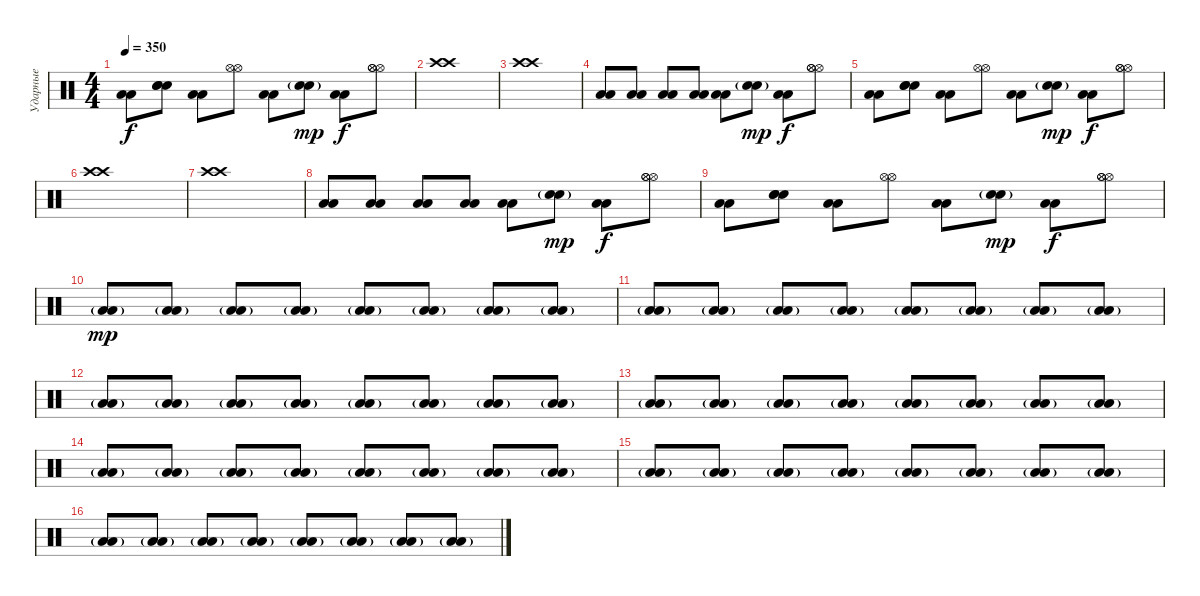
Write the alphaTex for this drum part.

\track ("Ударные" "Ударные") {instrument percussion}
\staff {score}
\articulation defaults
\ts (4 4)
\tempo 350
\clef neutral
\ks c
("Low Floor Tom (hit)" "Low Floor Tom (hit)").8{dy f} ("Electric Snare (hit)" "Electric Snare (hit)" "Electric Snare (hit)").8 ("Low Floor Tom (hit)" "Low Floor Tom (hit)").8 ("Hi-Hat (open)" "Hi-Hat (open)").8 ("Low Floor Tom (hit)" "Low Floor Tom (hit)").8 ("Electric Snare (hit)"{g} "Electric Snare (hit)"{g}).8{dy mp} ("Low Floor Tom (hit)" "Low Floor Tom (hit)").8{dy f} ("Hi-Hat (open)" "Hi-Hat (open)" "Hi-Hat (open)").8 |
("Crash high (hit)" "Crash high (hit)").1 |
("Crash high (hit)" "Crash high (hit)").1 |
("Low Floor Tom (hit)" "Low Floor Tom (hit)").8 ("Low Floor Tom (hit)" "Low Floor Tom (hit)").8 ("Low Floor Tom (hit)" "Low Floor Tom (hit)").8 ("Low Floor Tom (hit)" "Low Floor Tom (hit)").8 ("Low Floor Tom (hit)" "Low Floor Tom (hit)").8 ("Electric Snare (hit)"{g} "Electric Snare (hit)"{g}).8{dy mp} ("Low Floor Tom (hit)" "Low Floor Tom (hit)").8{dy f} ("Hi-Hat (open)" "Hi-Hat (open)" "Hi-Hat (open)").8 |
("Low Floor Tom (hit)" "Low Floor Tom (hit)").8 ("Electric Snare (hit)" "Electric Snare (hit)" "Electric Snare (hit)").8 ("Low Floor Tom (hit)" "Low Floor Tom (hit)").8 ("Hi-Hat (open)" "Hi-Hat (open)").8 ("Low Floor Tom (hit)" "Low Floor Tom (hit)").8 ("Electric Snare (hit)"{g} "Electric Snare (hit)"{g}).8{dy mp} ("Low Floor Tom (hit)" "Low Floor Tom (hit)").8{dy f} ("Hi-Hat (open)" "Hi-Hat (open)" "Hi-Hat (open)").8 |
("Crash high (hit)" "Crash high (hit)").1 |
("Crash high (hit)" "Crash high (hit)").1 |
("Low Floor Tom (hit)" "Low Floor Tom (hit)").8 ("Low Floor Tom (hit)" "Low Floor Tom (hit)").8 ("Low Floor Tom (hit)" "Low Floor Tom (hit)").8 ("Low Floor Tom (hit)" "Low Floor Tom (hit)").8 ("Low Floor Tom (hit)" "Low Floor Tom (hit)").8 ("Electric Snare (hit)"{g} "Electric Snare (hit)"{g}).8{dy mp} ("Low Floor Tom (hit)" "Low Floor Tom (hit)").8{dy f} ("Hi-Hat (open)" "Hi-Hat (open)" "Hi-Hat (open)").8 |
("Low Floor Tom (hit)" "Low Floor Tom (hit)").8 ("Electric Snare (hit)" "Electric Snare (hit)" "Electric Snare (hit)").8 ("Low Floor Tom (hit)" "Low Floor Tom (hit)").8 ("Hi-Hat (open)" "Hi-Hat (open)").8 ("Low Floor Tom (hit)" "Low Floor Tom (hit)").8 ("Electric Snare (hit)"{g} "Electric Snare (hit)"{g}).8{dy mp} ("Low Floor Tom (hit)" "Low Floor Tom (hit)").8{dy f} ("Hi-Hat (open)" "Hi-Hat (open)" "Hi-Hat (open)").8 |
("Low Floor Tom (hit)"{g} "Low Floor Tom (hit)"{g}).8{dy mp} ("Low Floor Tom (hit)"{g} "Low Floor Tom (hit)"{g}).8 ("Low Floor Tom (hit)"{g} "Low Floor Tom (hit)"{g}).8 ("Low Floor Tom (hit)"{g} "Low Floor Tom (hit)"{g}).8 ("Low Floor Tom (hit)"{g} "Low Floor Tom (hit)"{g}).8 ("Low Floor Tom (hit)"{g} "Low Floor Tom (hit)"{g}).8 ("Low Floor Tom (hit)"{g} "Low Floor Tom (hit)"{g}).8 ("Low Floor Tom (hit)"{g} "Low Floor Tom (hit)"{g}).8 |
("Low Floor Tom (hit)"{g} "Low Floor Tom (hit)"{g}).8 ("Low Floor Tom (hit)"{g} "Low Floor Tom (hit)"{g}).8 ("Low Floor Tom (hit)"{g} "Low Floor Tom (hit)"{g}).8 ("Low Floor Tom (hit)"{g} "Low Floor Tom (hit)"{g}).8 ("Low Floor Tom (hit)"{g} "Low Floor Tom (hit)"{g}).8 ("Low Floor Tom (hit)"{g} "Low Floor Tom (hit)"{g}).8 ("Low Floor Tom (hit)"{g} "Low Floor Tom (hit)"{g}).8 ("Low Floor Tom (hit)"{g} "Low Floor Tom (hit)"{g}).8 |
("Low Floor Tom (hit)"{g} "Low Floor Tom (hit)"{g}).8 ("Low Floor Tom (hit)"{g} "Low Floor Tom (hit)"{g}).8 ("Low Floor Tom (hit)"{g} "Low Floor Tom (hit)"{g}).8 ("Low Floor Tom (hit)"{g} "Low Floor Tom (hit)"{g}).8 ("Low Floor Tom (hit)"{g} "Low Floor Tom (hit)"{g}).8 ("Low Floor Tom (hit)"{g} "Low Floor Tom (hit)"{g}).8 ("Low Floor Tom (hit)"{g} "Low Floor Tom (hit)"{g}).8 ("Low Floor Tom (hit)"{g} "Low Floor Tom (hit)"{g}).8 |
("Low Floor Tom (hit)"{g} "Low Floor Tom (hit)"{g}).8 ("Low Floor Tom (hit)"{g} "Low Floor Tom (hit)"{g}).8 ("Low Floor Tom (hit)"{g} "Low Floor Tom (hit)"{g}).8 ("Low Floor Tom (hit)"{g} "Low Floor Tom (hit)"{g}).8 ("Low Floor Tom (hit)"{g} "Low Floor Tom (hit)"{g}).8 ("Low Floor Tom (hit)"{g} "Low Floor Tom (hit)"{g}).8 ("Low Floor Tom (hit)"{g} "Low Floor Tom (hit)"{g}).8 ("Low Floor Tom (hit)"{g} "Low Floor Tom (hit)"{g}).8 |
("Low Floor Tom (hit)"{g} "Low Floor Tom (hit)"{g}).8 ("Low Floor Tom (hit)"{g} "Low Floor Tom (hit)"{g}).8 ("Low Floor Tom (hit)"{g} "Low Floor Tom (hit)"{g}).8 ("Low Floor Tom (hit)"{g} "Low Floor Tom (hit)"{g}).8 ("Low Floor Tom (hit)"{g} "Low Floor Tom (hit)"{g}).8 ("Low Floor Tom (hit)"{g} "Low Floor Tom (hit)"{g}).8 ("Low Floor Tom (hit)"{g} "Low Floor Tom (hit)"{g}).8 ("Low Floor Tom (hit)"{g} "Low Floor Tom (hit)"{g}).8 |
("Low Floor Tom (hit)"{g} "Low Floor Tom (hit)"{g}).8 ("Low Floor Tom (hit)"{g} "Low Floor Tom (hit)"{g}).8 ("Low Floor Tom (hit)"{g} "Low Floor Tom (hit)"{g}).8 ("Low Floor Tom (hit)"{g} "Low Floor Tom (hit)"{g}).8 ("Low Floor Tom (hit)"{g} "Low Floor Tom (hit)"{g}).8 ("Low Floor Tom (hit)"{g} "Low Floor Tom (hit)"{g}).8 ("Low Floor Tom (hit)"{g} "Low Floor Tom (hit)"{g}).8 ("Low Floor Tom (hit)"{g} "Low Floor Tom (hit)"{g}).8 |
("Low Floor Tom (hit)"{g} "Low Floor Tom (hit)"{g}).8 ("Low Floor Tom (hit)"{g} "Low Floor Tom (hit)"{g}).8 ("Low Floor Tom (hit)"{g} "Low Floor Tom (hit)"{g}).8 ("Low Floor Tom (hit)"{g} "Low Floor Tom (hit)"{g}).8 ("Low Floor Tom (hit)"{g} "Low Floor Tom (hit)"{g}).8 ("Low Floor Tom (hit)"{g} "Low Floor Tom (hit)"{g}).8 ("Low Floor Tom (hit)"{g} "Low Floor Tom (hit)"{g}).8 ("Low Floor Tom (hit)"{g} "Low Floor Tom (hit)"{g}).8
